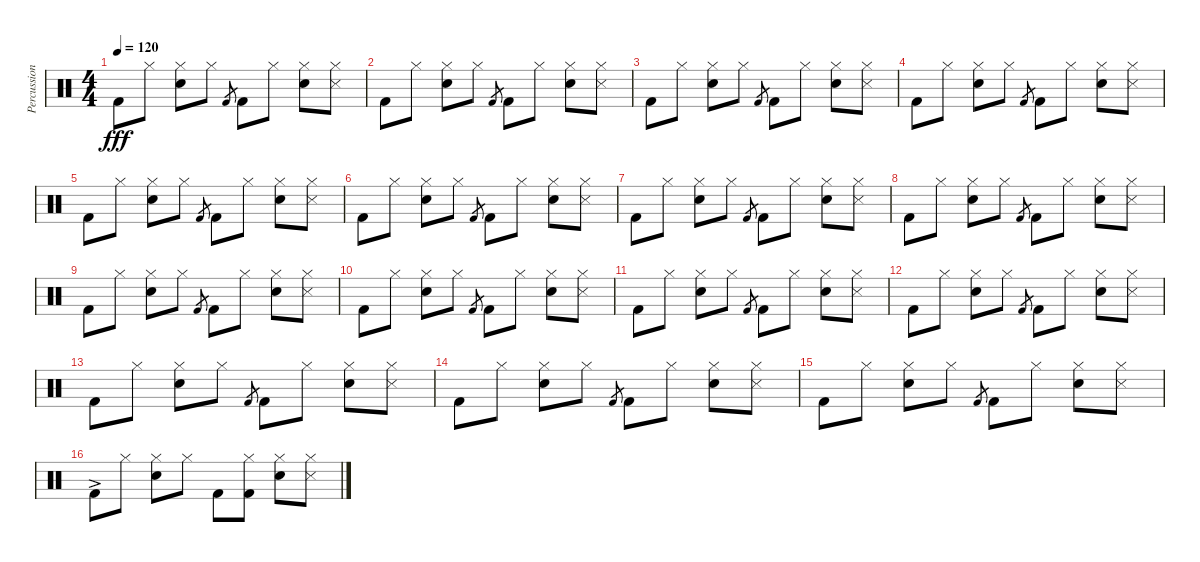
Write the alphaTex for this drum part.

\track ("Percussion" "Percussion") {instrument percussion}
\staff {score}
\articulation defaults
\ts (4 4)
\tempo 120
\clef neutral
\ks c "Kick (hit) 2".8{dy fff} "Hi-Hat (closed)".8
("Hi-Hat (closed)" "Snare (hit) 2").8 "Hi-Hat (closed)".8 "Kick (hit) 2".8{gr} "Kick (hit) 2".8 "Hi-Hat (closed)".8 ("Hi-Hat (closed)" "Snare (hit) 2").8 ("Hi-Hat (closed)" "Snare (side stick) 3").8 |
"Kick (hit) 2".8 "Hi-Hat (closed)".8 ("Hi-Hat (closed)" "Snare (hit) 2").8 "Hi-Hat (closed)".8 "Kick (hit) 2".8{gr} "Kick (hit) 2".8 "Hi-Hat (closed)".8 ("Hi-Hat (closed)" "Snare (hit) 2").8 ("Hi-Hat (closed)" "Snare (side stick) 3").8 |
"Kick (hit) 2".8 "Hi-Hat (closed)".8 ("Hi-Hat (closed)" "Snare (hit) 2").8 "Hi-Hat (closed)".8 "Kick (hit) 2".8{gr} "Kick (hit) 2".8 "Hi-Hat (closed)".8 ("Hi-Hat (closed)" "Snare (hit) 2").8 ("Hi-Hat (closed)" "Snare (side stick) 3").8 |
"Kick (hit) 2".8 "Hi-Hat (closed)".8 ("Hi-Hat (closed)" "Snare (hit) 2").8 "Hi-Hat (closed)".8 "Kick (hit) 2".8{gr} "Kick (hit) 2".8 "Hi-Hat (closed)".8 ("Hi-Hat (closed)" "Snare (hit) 2").8 ("Hi-Hat (closed)" "Snare (side stick) 3").8 |
"Kick (hit) 2".8 "Hi-Hat (closed)".8 ("Hi-Hat (closed)" "Snare (hit) 2").8 "Hi-Hat (closed)".8 "Kick (hit) 2".8{gr} "Kick (hit) 2".8 "Hi-Hat (closed)".8 ("Hi-Hat (closed)" "Snare (hit) 2").8 ("Hi-Hat (closed)" "Snare (side stick) 3").8 |
"Kick (hit) 2".8 "Hi-Hat (closed)".8 ("Hi-Hat (closed)" "Snare (hit) 2").8 "Hi-Hat (closed)".8 "Kick (hit) 2".8{gr} "Kick (hit) 2".8 "Hi-Hat (closed)".8 ("Hi-Hat (closed)" "Snare (hit) 2").8 ("Hi-Hat (closed)" "Snare (side stick) 3").8 |
"Kick (hit) 2".8 "Hi-Hat (closed)".8 ("Hi-Hat (closed)" "Snare (hit) 2").8 "Hi-Hat (closed)".8 "Kick (hit) 2".8{gr} "Kick (hit) 2".8 "Hi-Hat (closed)".8 ("Hi-Hat (closed)" "Snare (hit) 2").8 ("Hi-Hat (closed)" "Snare (side stick) 3").8 |
"Kick (hit) 2".8 "Hi-Hat (closed)".8 ("Hi-Hat (closed)" "Snare (hit) 2").8 "Hi-Hat (closed)".8 "Kick (hit) 2".8{gr} "Kick (hit) 2".8 "Hi-Hat (closed)".8 ("Hi-Hat (closed)" "Snare (hit) 2").8 ("Hi-Hat (closed)" "Snare (side stick) 3").8 |
"Kick (hit) 2".8 "Hi-Hat (closed)".8 ("Hi-Hat (closed)" "Snare (hit) 2").8 "Hi-Hat (closed)".8 "Kick (hit) 2".8{gr} "Kick (hit) 2".8 "Hi-Hat (closed)".8 ("Hi-Hat (closed)" "Snare (hit) 2").8 ("Hi-Hat (closed)" "Snare (side stick) 3").8 |
"Kick (hit) 2".8 "Hi-Hat (closed)".8 ("Hi-Hat (closed)" "Snare (hit) 2").8 "Hi-Hat (closed)".8 "Kick (hit) 2".8{gr} "Kick (hit) 2".8 "Hi-Hat (closed)".8 ("Hi-Hat (closed)" "Snare (hit) 2").8 ("Hi-Hat (closed)" "Snare (side stick) 3").8 |
"Kick (hit) 2".8 "Hi-Hat (closed)".8 ("Hi-Hat (closed)" "Snare (hit) 2").8 "Hi-Hat (closed)".8 "Kick (hit) 2".8{gr} "Kick (hit) 2".8 "Hi-Hat (closed)".8 ("Hi-Hat (closed)" "Snare (hit) 2").8 ("Hi-Hat (closed)" "Snare (side stick) 3").8 |
"Kick (hit) 2".8 "Hi-Hat (closed)".8 ("Hi-Hat (closed)" "Snare (hit) 2").8 "Hi-Hat (closed)".8 "Kick (hit) 2".8{gr} "Kick (hit) 2".8 "Hi-Hat (closed)".8 ("Hi-Hat (closed)" "Snare (hit) 2").8 ("Hi-Hat (closed)" "Snare (side stick) 3").8 |
"Kick (hit) 2".8 "Hi-Hat (closed)".8 ("Hi-Hat (closed)" "Snare (hit) 2").8 "Hi-Hat (closed)".8 "Kick (hit) 2".8{gr} "Kick (hit) 2".8 "Hi-Hat (closed)".8 ("Hi-Hat (closed)" "Snare (hit) 2").8 ("Hi-Hat (closed)" "Snare (side stick) 3").8 |
"Kick (hit) 2".8 "Hi-Hat (closed)".8 ("Hi-Hat (closed)" "Snare (hit) 2").8 "Hi-Hat (closed)".8 "Kick (hit) 2".8{gr} "Kick (hit) 2".8 "Hi-Hat (closed)".8 ("Hi-Hat (closed)" "Snare (hit) 2").8 ("Hi-Hat (closed)" "Snare (side stick) 3").8 |
"Kick (hit) 2".8 "Hi-Hat (closed)".8 ("Hi-Hat (closed)" "Snare (hit) 2").8 "Hi-Hat (closed)".8 "Kick (hit) 2".8{gr} "Kick (hit) 2".8 "Hi-Hat (closed)".8 ("Hi-Hat (closed)" "Snare (hit) 2").8 ("Hi-Hat (closed)" "Snare (side stick) 3").8 |
"Kick (hit) 2"{ac}.8 "Hi-Hat (closed)".8 ("Hi-Hat (closed)" "Snare (hit) 2").8 "Hi-Hat (closed)".8 "Kick (hit) 2".8 ("Hi-Hat (closed)" "Kick (hit) 2").8 ("Hi-Hat (closed)" "Snare (hit) 2").8 ("Hi-Hat (closed)" "Snare (side stick) 3").8
